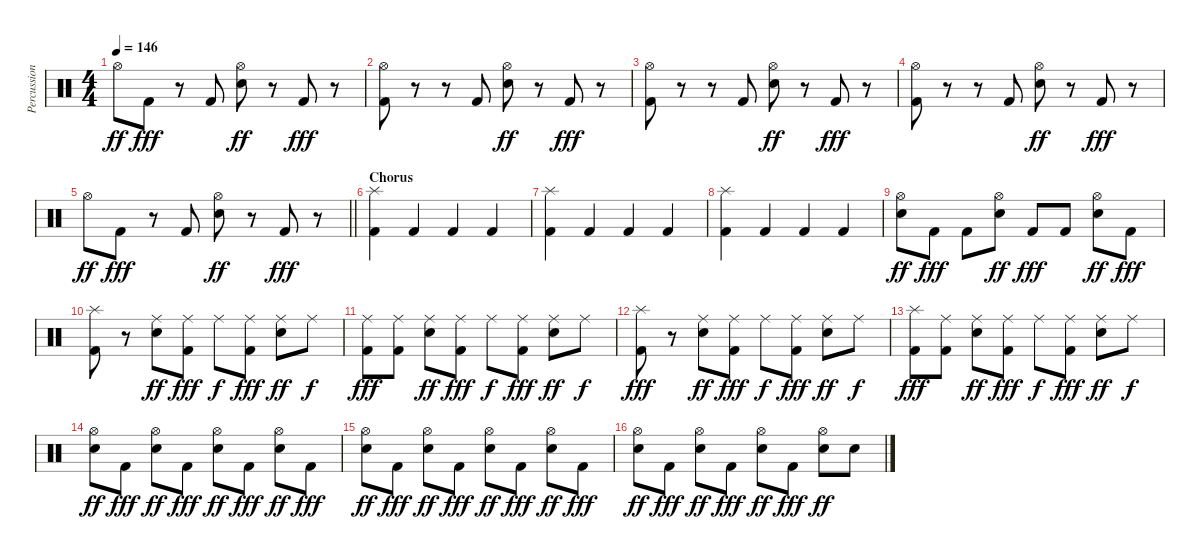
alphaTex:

\track ("Percussions" "Percussion") {instrument percussion}
\staff {score}
\articulation defaults
\ts (4 4)
\tempo 146
\clef neutral
\ks c "Hi-Hat (open)".8{dy ff} "Kick (hit) 2".8{dy fff}
r.8 "Kick (hit) 2".8 ("Hi-Hat (open)" "Snare (hit) 2").8{dy ff} r.8 "Kick (hit) 2".8{dy fff} r.8 |
("Hi-Hat (open)" "Kick (hit) 2").8 r.8 r.8 "Kick (hit) 2".8 ("Hi-Hat (open)" "Snare (hit) 2").8{dy ff} r.8 "Kick (hit) 2".8{dy fff} r.8 |
("Hi-Hat (open)" "Kick (hit) 2").8 r.8 r.8 "Kick (hit) 2".8 ("Hi-Hat (open)" "Snare (hit) 2").8{dy ff} r.8 "Kick (hit) 2".8{dy fff} r.8 |
("Hi-Hat (open)" "Kick (hit) 2").8 r.8 r.8 "Kick (hit) 2".8 ("Hi-Hat (open)" "Snare (hit) 2").8{dy ff} r.8 "Kick (hit) 2".8{dy fff} r.8 |
\barLineRight lightlight "Hi-Hat (open)".8{dy ff} "Kick (hit) 2".8{dy fff}
r.8 "Kick (hit) 2".8 ("Hi-Hat (open)" "Snare (hit) 2").8{dy ff} r.8 "Kick (hit) 2".8{dy fff} r.8 |
\section ("" "Chorus")
("Splash (hit)" "Kick (hit) 2").4 "Kick (hit) 2".4 "Kick (hit) 2".4 "Kick (hit) 2".4 |
("Splash (hit)" "Kick (hit) 2").4 "Kick (hit) 2".4 "Kick (hit) 2".4 "Kick (hit) 2".4 |
("Splash (hit)" "Kick (hit) 2").4 "Kick (hit) 2".4 "Kick (hit) 2".4 "Kick (hit) 2".4 |
("Hi-Hat (open)" "Snare (hit) 2").8{dy ff} "Kick (hit) 2".8{dy fff} "Kick (hit) 2".8 ("Hi-Hat (open)" "Snare (hit) 2").8{dy ff} "Kick (hit) 2".8{dy fff} "Kick (hit) 2".8 ("Hi-Hat (open)" "Snare (hit) 2").8{dy ff} "Kick (hit) 2".8{dy fff} |
("Splash (hit)" "Kick (hit) 2").8 r.8 ("Ride (middle)" "Snare (hit) 2").8{dy ff} ("Ride (middle)" "Kick (hit) 2").8{dy fff} "Ride (middle)".8{dy f} ("Ride (middle)" "Kick (hit) 2").8{dy fff} ("Ride (middle)" "Snare (hit) 2").8{dy ff} "Ride (middle)".8{dy f} |
("Ride (middle)" "Kick (hit) 2").8{dy fff} ("Ride (middle)" "Kick (hit) 2").8 ("Ride (middle)" "Snare (hit) 2").8{dy ff} ("Ride (middle)" "Kick (hit) 2").8{dy fff} "Ride (middle)".8{dy f} ("Ride (middle)" "Kick (hit) 2").8{dy fff} ("Ride (middle)" "Snare (hit) 2").8{dy ff} "Ride (middle)".8{dy f} |
("Splash (hit)" "Kick (hit) 2").8{dy fff} r.8 ("Ride (middle)" "Snare (hit) 2").8{dy ff} ("Ride (middle)" "Kick (hit) 2").8{dy fff} "Ride (middle)".8{dy f} ("Ride (middle)" "Kick (hit) 2").8{dy fff} ("Ride (middle)" "Snare (hit) 2").8{dy ff} "Ride (middle)".8{dy f} |
("Splash (hit)" "Kick (hit) 2").8{dy fff} ("Ride (middle)" "Kick (hit) 2").8 ("Ride (middle)" "Snare (hit) 2").8{dy ff} ("Ride (middle)" "Kick (hit) 2").8{dy fff} "Ride (middle)".8{dy f} ("Ride (middle)" "Kick (hit) 2").8{dy fff} ("Ride (middle)" "Snare (hit) 2").8{dy ff} "Ride (middle)".8{dy f} |
("Hi-Hat (open)" "Snare (hit) 2").8{dy ff} "Kick (hit) 2".8{dy fff} ("Hi-Hat (open)" "Snare (hit) 2").8{dy ff} "Kick (hit) 2".8{dy fff} ("Hi-Hat (open)" "Snare (hit) 2").8{dy ff} "Kick (hit) 2".8{dy fff} ("Hi-Hat (open)" "Snare (hit) 2").8{dy ff} "Kick (hit) 2".8{dy fff} |
("Hi-Hat (open)" "Snare (hit) 2").8{dy ff} "Kick (hit) 2".8{dy fff} ("Hi-Hat (open)" "Snare (hit) 2").8{dy ff} "Kick (hit) 2".8{dy fff} ("Hi-Hat (open)" "Snare (hit) 2").8{dy ff} "Kick (hit) 2".8{dy fff} ("Hi-Hat (open)" "Snare (hit) 2").8{dy ff} "Kick (hit) 2".8{dy fff} |
("Hi-Hat (open)" "Snare (hit) 2").8{dy ff} "Kick (hit) 2".8{dy fff} ("Hi-Hat (open)" "Snare (hit) 2").8{dy ff} "Kick (hit) 2".8{dy fff} ("Hi-Hat (open)" "Snare (hit) 2").8{dy ff} "Kick (hit) 2".8{dy fff} ("Hi-Hat (open)" "Snare (hit) 2").8{dy ff} "Snare (hit) 2".8
